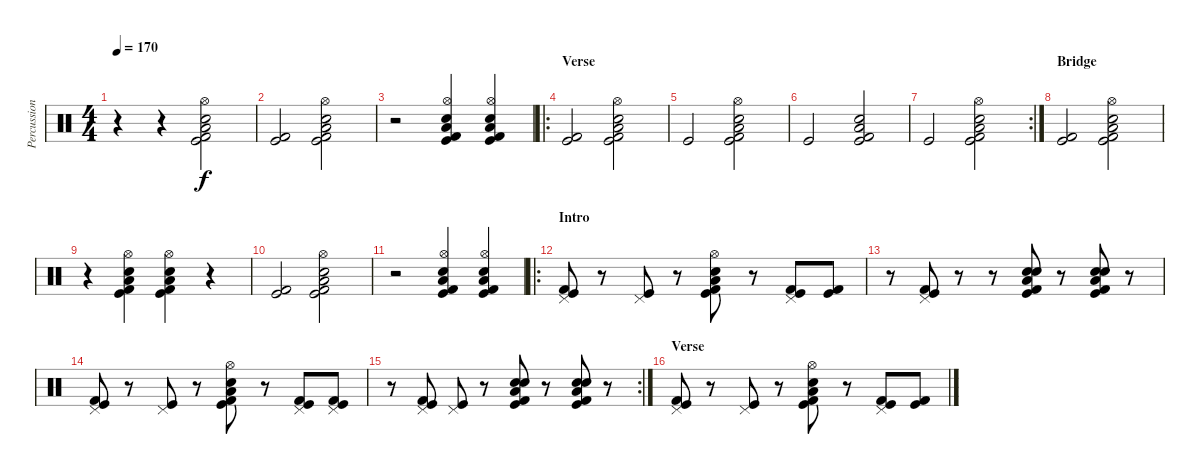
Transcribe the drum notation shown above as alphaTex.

\track ("Percussion" "Percussion") {instrument percussion}
\staff {score}
\articulation defaults
\ts (4 4)
\tempo 170
\clef neutral
\ks c
r.4{dy f} r.4 ("Kick (hit) 2" "Snare (hit) 2" "Kick (hit)" "Low Floor Tom (hit)" "Hi-Hat (open)").2 |
("Kick (hit)" "Kick (hit) 2").2 ("Kick (hit) 2" "Snare (hit) 2" "Kick (hit)" "Low Floor Tom (hit)" "Hi-Hat (open)").2 |
r.2 ("Kick (hit) 2" "Electric Snare (hit)" "Kick (hit)" "Low Floor Tom (hit)" "Hi-Hat (open)").4 ("Kick (hit) 2" "Electric Snare (hit)" "Kick (hit)" "Low Floor Tom (hit)" "Hi-Hat (open)").4 |
\ro
\section ("" "Verse")
("Kick (hit)" "Kick (hit) 2").2{volume 10} ("Kick (hit) 2" "Snare (hit) 2" "Kick (hit)" "Low Floor Tom (hit)" "Hi-Hat (open)").2 |
"Kick (hit)".2 ("Kick (hit) 2" "Snare (hit) 2" "Kick (hit)" "Low Floor Tom (hit)" "Hi-Hat (open)").2 |
"Kick (hit)".2 ("Kick (hit) 2" "Snare (hit) 2" "Kick (hit)" "Low Floor Tom (hit)").2 |
\rc 2 "Kick (hit)".2
("Kick (hit) 2" "Snare (hit) 2" "Kick (hit)" "Low Floor Tom (hit)" "Hi-Hat (open)").2 |
\section ("" "Bridge")
("Kick (hit)" "Kick (hit) 2").2{volume 12} ("Kick (hit) 2" "Snare (hit) 2" "Kick (hit)" "Low Floor Tom (hit)" "Hi-Hat (open)").2 |
r.4 ("Kick (hit) 2" "Snare (hit) 2" "Kick (hit)" "Low Floor Tom (hit)" "Hi-Hat (open)").4 ("Kick (hit) 2" "Snare (hit) 2" "Kick (hit)" "Low Floor Tom (hit)" "Hi-Hat (open)").4 r.4 |
("Kick (hit)" "Kick (hit) 2").2 ("Kick (hit) 2" "Snare (hit) 2" "Kick (hit)" "Low Floor Tom (hit)" "Hi-Hat (open)").2 |
r.2 ("Kick (hit) 2" "Electric Snare (hit)" "Kick (hit)" "Low Floor Tom (hit)" "Hi-Hat (open)").4 ("Kick (hit) 2" "Electric Snare (hit)" "Kick (hit)" "Low Floor Tom (hit)" "Hi-Hat (open)").4 |
\ro
\section ("" "Intro")
("Kick (hit)" "Kick (hit) 2" "Pedal Hi-Hat (hit)").8 r.8 ("Kick (hit)" "Pedal Hi-Hat (hit)").8 r.8 ("Kick (hit) 2" "Snare (hit) 2" "Kick (hit)" "Low Floor Tom (hit)" "Hi-Hat (open)").8 r.8 ("Kick (hit)" "Kick (hit) 2" "Pedal Hi-Hat (hit)").8 ("Kick (hit)" "Kick (hit) 2").8 |
r.8 ("Kick (hit)" "Kick (hit) 2" "Pedal Hi-Hat (hit)").8 r.8 r.8 ("Kick (hit) 2" "Snare (hit) 2" "Kick (hit)" "Low Floor Tom (hit)" "Snare (hit) 2").8 r.8 ("Kick (hit) 2" "Snare (hit) 2" "Kick (hit)" "Low Floor Tom (hit)" "Snare (hit) 2").8 r.8 |
("Kick (hit)" "Kick (hit) 2" "Pedal Hi-Hat (hit)").8 r.8 ("Kick (hit)" "Pedal Hi-Hat (hit)").8 r.8 ("Kick (hit) 2" "Snare (hit) 2" "Kick (hit)" "Low Floor Tom (hit)" "Hi-Hat (open)").8 r.8 ("Kick (hit)" "Kick (hit) 2" "Pedal Hi-Hat (hit)").8 ("Kick (hit)" "Kick (hit) 2" "Pedal Hi-Hat (hit)").8 |
\rc 2
r.8 ("Kick (hit)" "Kick (hit) 2" "Pedal Hi-Hat (hit)").8 ("Kick (hit)" "Pedal Hi-Hat (hit)").8 r.8 ("Kick (hit) 2" "Snare (hit) 2" "Kick (hit)" "Low Floor Tom (hit)" "Snare (hit) 2").8 r.8 ("Kick (hit) 2" "Snare (hit) 2" "Kick (hit)" "Low Floor Tom (hit)" "Snare (hit) 2").8 r.8 |
\section ("" "Verse")
("Kick (hit)" "Kick (hit) 2" "Pedal Hi-Hat (hit)").8 r.8 ("Kick (hit)" "Pedal Hi-Hat (hit)").8 r.8 ("Kick (hit) 2" "Snare (hit) 2" "Kick (hit)" "Low Floor Tom (hit)" "Hi-Hat (open)").8 r.8 ("Kick (hit)" "Kick (hit) 2" "Pedal Hi-Hat (hit)").8 ("Kick (hit)" "Kick (hit) 2").8
